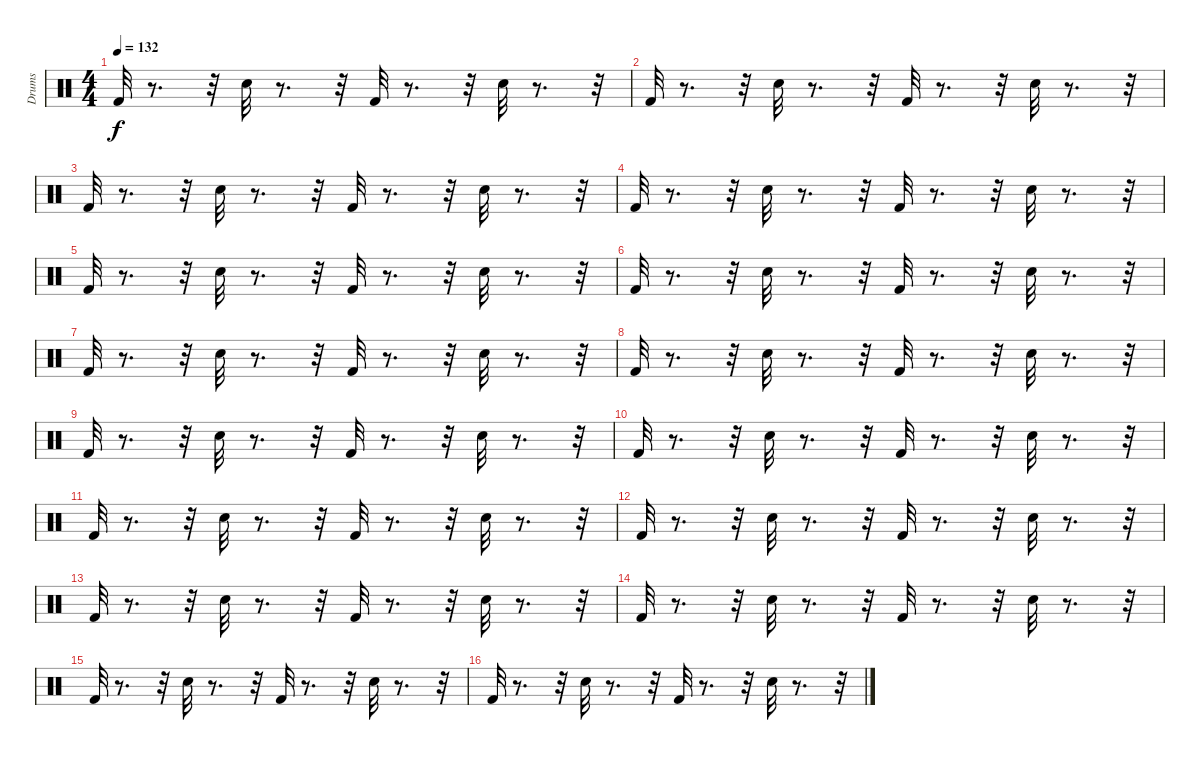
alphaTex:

\track ("Drums" "Drums") {instrument percussion}
\staff {score}
\articulation defaults
\ts (4 4)
\tempo 132
\clef neutral
\ks c "Kick (hit) 2".32{dy f}
r.8{d} r.32 "Snare (hit) 2".32 r.8{d} r.32 "Kick (hit) 2".32 r.8{d} r.32 "Snare (hit) 2".32 r.8{d} r.32 |
"Kick (hit) 2".32 r.8{d} r.32 "Snare (hit) 2".32 r.8{d} r.32 "Kick (hit) 2".32 r.8{d} r.32 "Snare (hit) 2".32 r.8{d} r.32 |
"Kick (hit) 2".32 r.8{d} r.32 "Snare (hit) 2".32 r.8{d} r.32 "Kick (hit) 2".32 r.8{d} r.32 "Snare (hit) 2".32 r.8{d} r.32 |
"Kick (hit) 2".32 r.8{d} r.32 "Snare (hit) 2".32 r.8{d} r.32 "Kick (hit) 2".32 r.8{d} r.32 "Snare (hit) 2".32 r.8{d} r.32 |
"Kick (hit) 2".32 r.8{d} r.32 "Snare (hit) 2".32 r.8{d} r.32 "Kick (hit) 2".32 r.8{d} r.32 "Snare (hit) 2".32 r.8{d} r.32 |
"Kick (hit) 2".32 r.8{d} r.32 "Snare (hit) 2".32 r.8{d} r.32 "Kick (hit) 2".32 r.8{d} r.32 "Snare (hit) 2".32 r.8{d} r.32 |
"Kick (hit) 2".32 r.8{d} r.32 "Snare (hit) 2".32 r.8{d} r.32 "Kick (hit) 2".32 r.8{d} r.32 "Snare (hit) 2".32 r.8{d} r.32 |
"Kick (hit) 2".32 r.8{d} r.32 "Snare (hit) 2".32 r.8{d} r.32 "Kick (hit) 2".32 r.8{d} r.32 "Snare (hit) 2".32 r.8{d} r.32 |
"Kick (hit) 2".32 r.8{d} r.32 "Snare (hit) 2".32 r.8{d} r.32 "Kick (hit) 2".32 r.8{d} r.32 "Snare (hit) 2".32 r.8{d} r.32 |
"Kick (hit) 2".32 r.8{d} r.32 "Snare (hit) 2".32 r.8{d} r.32 "Kick (hit) 2".32 r.8{d} r.32 "Snare (hit) 2".32 r.8{d} r.32 |
"Kick (hit) 2".32 r.8{d} r.32 "Snare (hit) 2".32 r.8{d} r.32 "Kick (hit) 2".32 r.8{d} r.32 "Snare (hit) 2".32 r.8{d} r.32 |
"Kick (hit) 2".32 r.8{d} r.32 "Snare (hit) 2".32 r.8{d} r.32 "Kick (hit) 2".32 r.8{d} r.32 "Snare (hit) 2".32 r.8{d} r.32 |
"Kick (hit) 2".32 r.8{d} r.32 "Snare (hit) 2".32 r.8{d} r.32 "Kick (hit) 2".32 r.8{d} r.32 "Snare (hit) 2".32 r.8{d} r.32 |
"Kick (hit) 2".32 r.8{d} r.32 "Snare (hit) 2".32 r.8{d} r.32 "Kick (hit) 2".32 r.8{d} r.32 "Snare (hit) 2".32 r.8{d} r.32 |
"Kick (hit) 2".32 r.8{d} r.32 "Snare (hit) 2".32 r.8{d} r.32 "Kick (hit) 2".32 r.8{d} r.32 "Snare (hit) 2".32 r.8{d} r.32 |
"Kick (hit) 2".32 r.8{d} r.32 "Snare (hit) 2".32 r.8{d} r.32 "Kick (hit) 2".32 r.8{d} r.32 "Snare (hit) 2".32 r.8{d} r.32
